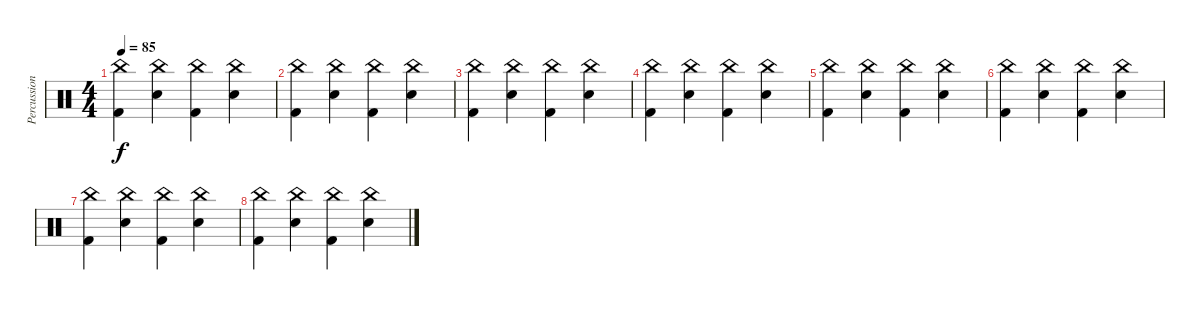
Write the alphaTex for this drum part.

\track ("Percussion" "Percussion") {instrument percussion}
\staff {score}
\articulation defaults
\ts (4 4)
\tempo 85
\clef neutral
\ks c
("China (hit)" "Kick (hit) 2").4{dy f} ("China (hit)" "Electric Snare (hit)").4 ("China (hit)" "Kick (hit) 2").4 ("China (hit)" "Electric Snare (hit)").4 |
("China (hit)" "Kick (hit) 2").4 ("China (hit)" "Electric Snare (hit)").4 ("China (hit)" "Kick (hit) 2").4 ("China (hit)" "Electric Snare (hit)").4 |
("China (hit)" "Kick (hit) 2").4 ("China (hit)" "Electric Snare (hit)").4 ("China (hit)" "Kick (hit) 2").4 ("China (hit)" "Electric Snare (hit)").4 |
("China (hit)" "Kick (hit) 2").4 ("China (hit)" "Electric Snare (hit)").4 ("China (hit)" "Kick (hit) 2").4 ("China (hit)" "Electric Snare (hit)").4 |
("China (hit)" "Kick (hit) 2").4 ("China (hit)" "Electric Snare (hit)").4 ("China (hit)" "Kick (hit) 2").4 ("China (hit)" "Electric Snare (hit)").4 |
("China (hit)" "Kick (hit) 2").4 ("China (hit)" "Electric Snare (hit)").4 ("China (hit)" "Kick (hit) 2").4 ("China (hit)" "Electric Snare (hit)").4 |
("China (hit)" "Kick (hit) 2").4 ("China (hit)" "Electric Snare (hit)").4 ("China (hit)" "Kick (hit) 2").4 ("China (hit)" "Electric Snare (hit)").4 |
("China (hit)" "Kick (hit) 2").4 ("China (hit)" "Electric Snare (hit)").4 ("China (hit)" "Kick (hit) 2").4 ("China (hit)" "Electric Snare (hit)").4
